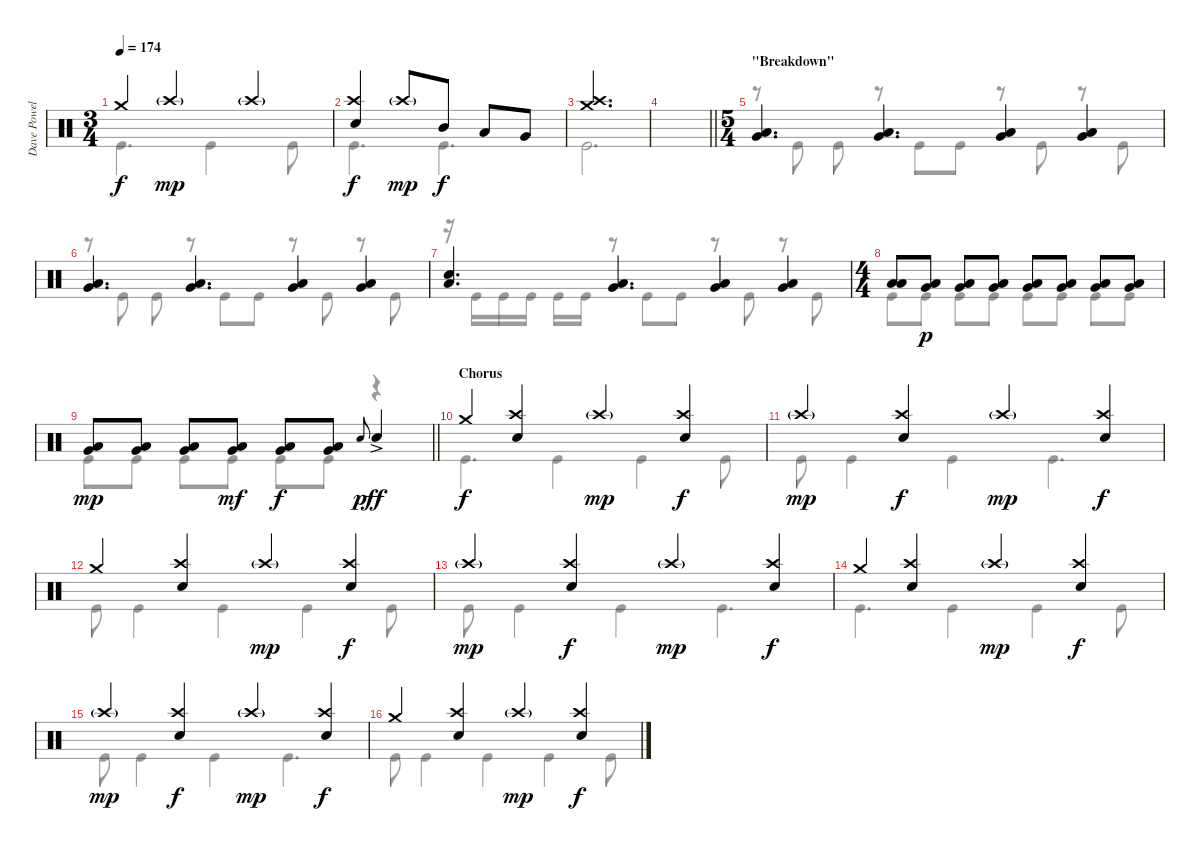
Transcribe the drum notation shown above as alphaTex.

\track ("Dave Powell" "Dave Powel") {instrument percussion}
\staff {score}
\articulation defaults
\voice
\ts (3 4)
\tempo 174
\clef neutral
\ks c "Crash medium (hit)".4{dy f} "Crash high (hit)"{g}.4{dy mp} "Crash high (hit)"{g}.4
|
("Crash high (hit)" "Electric Snare (hit)").4{dy f} "Crash high (hit)"{g}.8{dy mp} "Mid Tom (hit)".8{dy f} "Low Tom (hit)".8 "Very Low Tom (hit)".8 |
("Crash medium (hit)" "Crash high (hit)").2{d} |
\barLineRight lightlight
|
\ts (5 4)
\section ("" "\"Breakdown\"")
("Low Tom (hit)" "Very Low Tom (hit)").4{d} ("Low Tom (hit)" "Very Low Tom (hit)").4{d} ("Low Tom (hit)" "Very Low Tom (hit)").4 ("Low Tom (hit)" "Very Low Tom (hit)").4 |
("Low Tom (hit)" "Very Low Tom (hit)").4{d} ("Low Tom (hit)" "Very Low Tom (hit)").4{d} ("Low Tom (hit)" "Very Low Tom (hit)").4 ("Low Tom (hit)" "Very Low Tom (hit)").4 |
("Low Tom (hit)" "Electric Snare (hit)").4{d} ("Low Tom (hit)" "Very Low Tom (hit)").4{d} ("Low Tom (hit)" "Very Low Tom (hit)").4 ("Low Tom (hit)" "Very Low Tom (hit)").4 |
\ts (4 4)
("Low Tom (hit)" "Low Tom (hit)").8 ("Low Tom (hit)" "Very Low Tom (hit)").8{dy p} ("Low Tom (hit)" "Very Low Tom (hit)").8 ("Low Tom (hit)" "Very Low Tom (hit)").8 ("Low Tom (hit)" "Very Low Tom (hit)").8 ("Low Tom (hit)" "Very Low Tom (hit)").8 ("Low Tom (hit)" "Very Low Tom (hit)").8 ("Low Tom (hit)" "Very Low Tom (hit)").8 |
\barLineRight lightlight
("Low Tom (hit)" "Very Low Tom (hit)").8{dy mp} ("Low Tom (hit)" "Very Low Tom (hit)").8 ("Low Tom (hit)" "Very Low Tom (hit)").8 ("Low Tom (hit)" "Very Low Tom (hit)").8{dy mf} ("Low Tom (hit)" "Very Low Tom (hit)").8{dy f} ("Low Tom (hit)" "Very Low Tom (hit)").8 "Electric Snare (hit)".8{gr onbeat dy p} "Electric Snare (hit)"{ac}.4{dy ff} |
\section ("" "Chorus")
"Crash medium (hit)".4{dy f} ("Crash high (hit)" "Electric Snare (hit)").4 "Crash high (hit)"{g}.4{dy mp} ("Crash high (hit)" "Electric Snare (hit)").4{dy f} |
"Crash high (hit)"{g}.4{dy mp} ("Crash high (hit)" "Electric Snare (hit)").4{dy f} "Crash high (hit)"{g}.4{dy mp} ("Crash high (hit)" "Electric Snare (hit)").4{dy f} |
"Crash medium (hit)".4 ("Crash high (hit)" "Electric Snare (hit)").4 "Crash high (hit)"{g}.4{dy mp} ("Crash high (hit)" "Electric Snare (hit)").4{dy f} |
"Crash high (hit)"{g}.4{dy mp} ("Crash high (hit)" "Electric Snare (hit)").4{dy f} "Crash high (hit)"{g}.4{dy mp} ("Crash high (hit)" "Electric Snare (hit)").4{dy f} |
"Crash medium (hit)".4 ("Crash high (hit)" "Electric Snare (hit)").4 "Crash high (hit)"{g}.4{dy mp} ("Crash high (hit)" "Electric Snare (hit)").4{dy f} |
"Crash high (hit)"{g}.4{dy mp} ("Crash high (hit)" "Electric Snare (hit)").4{dy f} "Crash high (hit)"{g}.4{dy mp} ("Crash high (hit)" "Electric Snare (hit)").4{dy f} |
"Crash medium (hit)".4 ("Crash high (hit)" "Electric Snare (hit)").4 "Crash high (hit)"{g}.4{dy mp} ("Crash high (hit)" "Electric Snare (hit)").4{dy f}
\voice
\clef neutral
\ottava regular
\simile none
\ks c "Kick (hit)".4{d dy f} "Kick (hit)".4 "Kick (hit)".8
|
"Kick (hit)".4{d} "Kick (hit)".4{d} |
"Kick (hit)".2{d} |
\barLineRight lightlight
|
r.8 "Kick (hit)".8 "Kick (hit)".8 r.8 "Kick (hit)".8 "Kick (hit)".8 r.8 "Kick (hit)".8 r.8 "Kick (hit)".8 |
r.8 "Kick (hit)".8 "Kick (hit)".8 r.8 "Kick (hit)".8 "Kick (hit)".8 r.8 "Kick (hit)".8 r.8 "Kick (hit)".8 |
r.16 "Kick (hit)".16 "Kick (hit)".16 "Kick (hit)".16 "Kick (hit)".16 "Kick (hit)".16 r.8 "Kick (hit)".8 "Kick (hit)".8 r.8 "Kick (hit)".8 r.8 "Kick (hit)".8 |
"Kick (hit)".8 "Kick (hit)".8 "Kick (hit)".8 "Kick (hit)".8 "Kick (hit)".8 "Kick (hit)".8 "Kick (hit)".8 "Kick (hit)".8 |
\barLineRight lightlight "Kick (hit)".8 "Kick (hit)".8 "Kick (hit)".8 "Kick (hit)".8 "Kick (hit)".8 "Kick (hit)".8
r.4 |
"Kick (hit)".4{d} "Kick (hit)".4 "Kick (hit)".4 "Kick (hit)".8 |
"Kick (hit)".8 "Kick (hit)".4 "Kick (hit)".4 "Kick (hit)".4{d} |
"Kick (hit)".8 "Kick (hit)".4 "Kick (hit)".4 "Kick (hit)".4 "Kick (hit)".8 |
"Kick (hit)".8 "Kick (hit)".4 "Kick (hit)".4 "Kick (hit)".4{d} |
"Kick (hit)".4{d} "Kick (hit)".4 "Kick (hit)".4 "Kick (hit)".8 |
"Kick (hit)".8 "Kick (hit)".4 "Kick (hit)".4 "Kick (hit)".4{d} |
"Kick (hit)".8 "Kick (hit)".4 "Kick (hit)".4 "Kick (hit)".4 "Kick (hit)".8
